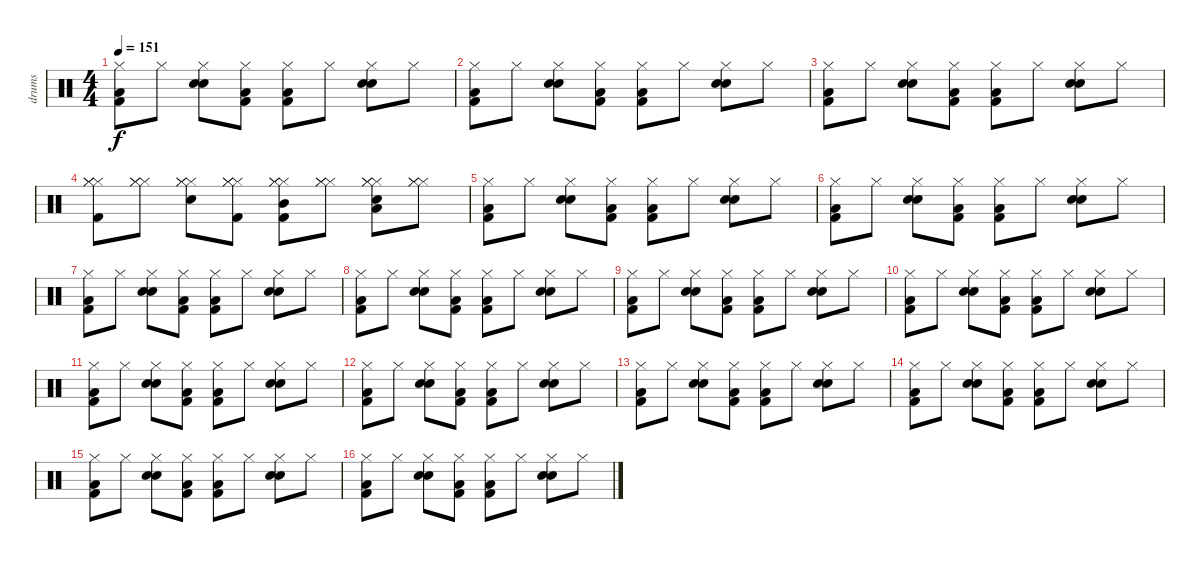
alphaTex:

\track ("drums" "drums") {instrument percussion}
\staff {score}
\articulation defaults
\ts (4 4)
\tempo 151
\clef neutral
\ks c
("Hi-Hat (closed)" "Low Floor Tom (hit)" "Kick (hit) 2").8{dy f} "Hi-Hat (closed)".8 ("Hi-Hat (closed)" "Snare (hit) 2" "Snare (hit) 2").8 ("Hi-Hat (closed)" "Low Floor Tom (hit)" "Kick (hit) 2").8 ("Hi-Hat (closed)" "Low Floor Tom (hit)" "Kick (hit) 2").8 "Hi-Hat (closed)".8 ("Hi-Hat (closed)" "Snare (hit) 2" "Snare (hit) 2").8 "Hi-Hat (closed)".8 |
("Hi-Hat (closed)" "Low Floor Tom (hit)" "Kick (hit) 2").8 "Hi-Hat (closed)".8 ("Hi-Hat (closed)" "Snare (hit) 2" "Snare (hit) 2").8 ("Hi-Hat (closed)" "Low Floor Tom (hit)" "Kick (hit) 2").8 ("Hi-Hat (closed)" "Low Floor Tom (hit)" "Kick (hit) 2").8 "Hi-Hat (closed)".8 ("Hi-Hat (closed)" "Snare (hit) 2" "Snare (hit) 2").8 "Hi-Hat (closed)".8 |
("Hi-Hat (closed)" "Low Floor Tom (hit)" "Kick (hit) 2").8 "Hi-Hat (closed)".8 ("Hi-Hat (closed)" "Snare (hit) 2" "Snare (hit) 2").8 ("Hi-Hat (closed)" "Low Floor Tom (hit)" "Kick (hit) 2").8 ("Hi-Hat (closed)" "Low Floor Tom (hit)" "Kick (hit) 2").8 "Hi-Hat (closed)".8 ("Hi-Hat (closed)" "Snare (hit) 2" "Snare (hit) 2").8 "Hi-Hat (closed)".8 |
("Hi-Hat (closed)" "Hi-Hat (closed)" "Hi-Hat (closed)" "Kick (hit) 2").8 ("Hi-Hat (closed)" "Hi-Hat (closed)" "Hi-Hat (closed)").8 ("Hi-Hat (closed)" "Hi-Hat (closed)" "Hi-Hat (closed)" "Snare (hit) 2").8 ("Hi-Hat (closed)" "Hi-Hat (closed)" "Hi-Hat (closed)" "Kick (hit) 2").8 ("Hi-Hat (closed)" "Hi-Hat (closed)" "Hi-Hat (closed)" "Mid Tom (hit)" "Kick (hit) 2").8 ("Hi-Hat (closed)" "Hi-Hat (closed)" "Hi-Hat (closed)").8 ("Hi-Hat (closed)" "Hi-Hat (closed)" "Hi-Hat (closed)" "Snare (hit) 2" "Low Tom (hit)").8 ("Hi-Hat (closed)" "Hi-Hat (closed)" "Hi-Hat (closed)").8 |
("Hi-Hat (closed)" "Low Floor Tom (hit)" "Kick (hit) 2").8 "Hi-Hat (closed)".8 ("Hi-Hat (closed)" "Snare (hit) 2" "Snare (hit) 2").8 ("Hi-Hat (closed)" "Low Floor Tom (hit)" "Kick (hit) 2").8 ("Hi-Hat (closed)" "Low Floor Tom (hit)" "Kick (hit) 2").8 "Hi-Hat (closed)".8 ("Hi-Hat (closed)" "Snare (hit) 2" "Snare (hit) 2").8 "Hi-Hat (closed)".8 |
("Hi-Hat (closed)" "Low Floor Tom (hit)" "Kick (hit) 2").8 "Hi-Hat (closed)".8 ("Hi-Hat (closed)" "Snare (hit) 2" "Snare (hit) 2").8 ("Hi-Hat (closed)" "Low Floor Tom (hit)" "Kick (hit) 2").8 ("Hi-Hat (closed)" "Low Floor Tom (hit)" "Kick (hit) 2").8 "Hi-Hat (closed)".8 ("Hi-Hat (closed)" "Snare (hit) 2" "Snare (hit) 2").8 "Hi-Hat (closed)".8 |
("Hi-Hat (closed)" "Low Floor Tom (hit)" "Kick (hit) 2").8 "Hi-Hat (closed)".8 ("Hi-Hat (closed)" "Snare (hit) 2" "Snare (hit) 2").8 ("Hi-Hat (closed)" "Low Floor Tom (hit)" "Kick (hit) 2").8 ("Hi-Hat (closed)" "Low Floor Tom (hit)" "Kick (hit) 2").8 "Hi-Hat (closed)".8 ("Hi-Hat (closed)" "Snare (hit) 2" "Snare (hit) 2").8 "Hi-Hat (closed)".8 |
("Hi-Hat (closed)" "Low Floor Tom (hit)" "Kick (hit) 2").8 "Hi-Hat (closed)".8 ("Hi-Hat (closed)" "Snare (hit) 2" "Snare (hit) 2").8 ("Hi-Hat (closed)" "Low Floor Tom (hit)" "Kick (hit) 2").8 ("Hi-Hat (closed)" "Low Floor Tom (hit)" "Kick (hit) 2").8 "Hi-Hat (closed)".8 ("Hi-Hat (closed)" "Snare (hit) 2" "Snare (hit) 2").8 "Hi-Hat (closed)".8 |
("Hi-Hat (closed)" "Low Floor Tom (hit)" "Kick (hit) 2").8 "Hi-Hat (closed)".8 ("Hi-Hat (closed)" "Snare (hit) 2" "Snare (hit) 2").8 ("Hi-Hat (closed)" "Low Floor Tom (hit)" "Kick (hit) 2").8 ("Hi-Hat (closed)" "Low Floor Tom (hit)" "Kick (hit) 2").8 "Hi-Hat (closed)".8 ("Hi-Hat (closed)" "Snare (hit) 2" "Snare (hit) 2").8 "Hi-Hat (closed)".8 |
("Hi-Hat (closed)" "Low Floor Tom (hit)" "Kick (hit) 2").8 "Hi-Hat (closed)".8 ("Hi-Hat (closed)" "Snare (hit) 2" "Snare (hit) 2").8 ("Hi-Hat (closed)" "Low Floor Tom (hit)" "Kick (hit) 2").8 ("Hi-Hat (closed)" "Low Floor Tom (hit)" "Kick (hit) 2").8 "Hi-Hat (closed)".8 ("Hi-Hat (closed)" "Snare (hit) 2" "Snare (hit) 2").8 "Hi-Hat (closed)".8 |
("Hi-Hat (closed)" "Low Floor Tom (hit)" "Kick (hit) 2").8 "Hi-Hat (closed)".8 ("Hi-Hat (closed)" "Snare (hit) 2" "Snare (hit) 2").8 ("Hi-Hat (closed)" "Low Floor Tom (hit)" "Kick (hit) 2").8 ("Hi-Hat (closed)" "Low Floor Tom (hit)" "Kick (hit) 2").8 "Hi-Hat (closed)".8 ("Hi-Hat (closed)" "Snare (hit) 2" "Snare (hit) 2").8 "Hi-Hat (closed)".8 |
("Hi-Hat (closed)" "Low Floor Tom (hit)" "Kick (hit) 2").8 "Hi-Hat (closed)".8 ("Hi-Hat (closed)" "Snare (hit) 2" "Snare (hit) 2").8 ("Hi-Hat (closed)" "Low Floor Tom (hit)" "Kick (hit) 2").8 ("Hi-Hat (closed)" "Low Floor Tom (hit)" "Kick (hit) 2").8 "Hi-Hat (closed)".8 ("Hi-Hat (closed)" "Snare (hit) 2" "Snare (hit) 2").8 "Hi-Hat (closed)".8 |
("Hi-Hat (closed)" "Low Floor Tom (hit)" "Kick (hit) 2").8 "Hi-Hat (closed)".8 ("Hi-Hat (closed)" "Snare (hit) 2" "Snare (hit) 2").8 ("Hi-Hat (closed)" "Low Floor Tom (hit)" "Kick (hit) 2").8 ("Hi-Hat (closed)" "Low Floor Tom (hit)" "Kick (hit) 2").8 "Hi-Hat (closed)".8 ("Hi-Hat (closed)" "Snare (hit) 2" "Snare (hit) 2").8 "Hi-Hat (closed)".8 |
("Hi-Hat (closed)" "Low Floor Tom (hit)" "Kick (hit) 2").8 "Hi-Hat (closed)".8 ("Hi-Hat (closed)" "Snare (hit) 2" "Snare (hit) 2").8 ("Hi-Hat (closed)" "Low Floor Tom (hit)" "Kick (hit) 2").8 ("Hi-Hat (closed)" "Low Floor Tom (hit)" "Kick (hit) 2").8 "Hi-Hat (closed)".8 ("Hi-Hat (closed)" "Snare (hit) 2" "Snare (hit) 2").8 "Hi-Hat (closed)".8 |
("Hi-Hat (closed)" "Low Floor Tom (hit)" "Kick (hit) 2").8 "Hi-Hat (closed)".8 ("Hi-Hat (closed)" "Snare (hit) 2" "Snare (hit) 2").8 ("Hi-Hat (closed)" "Low Floor Tom (hit)" "Kick (hit) 2").8 ("Hi-Hat (closed)" "Low Floor Tom (hit)" "Kick (hit) 2").8 "Hi-Hat (closed)".8 ("Hi-Hat (closed)" "Snare (hit) 2" "Snare (hit) 2").8 "Hi-Hat (closed)".8 |
("Hi-Hat (closed)" "Low Floor Tom (hit)" "Kick (hit) 2").8 "Hi-Hat (closed)".8 ("Hi-Hat (closed)" "Snare (hit) 2" "Snare (hit) 2").8 ("Hi-Hat (closed)" "Low Floor Tom (hit)" "Kick (hit) 2").8 ("Hi-Hat (closed)" "Low Floor Tom (hit)" "Kick (hit) 2").8 "Hi-Hat (closed)".8 ("Hi-Hat (closed)" "Snare (hit) 2" "Snare (hit) 2").8 "Hi-Hat (closed)".8
